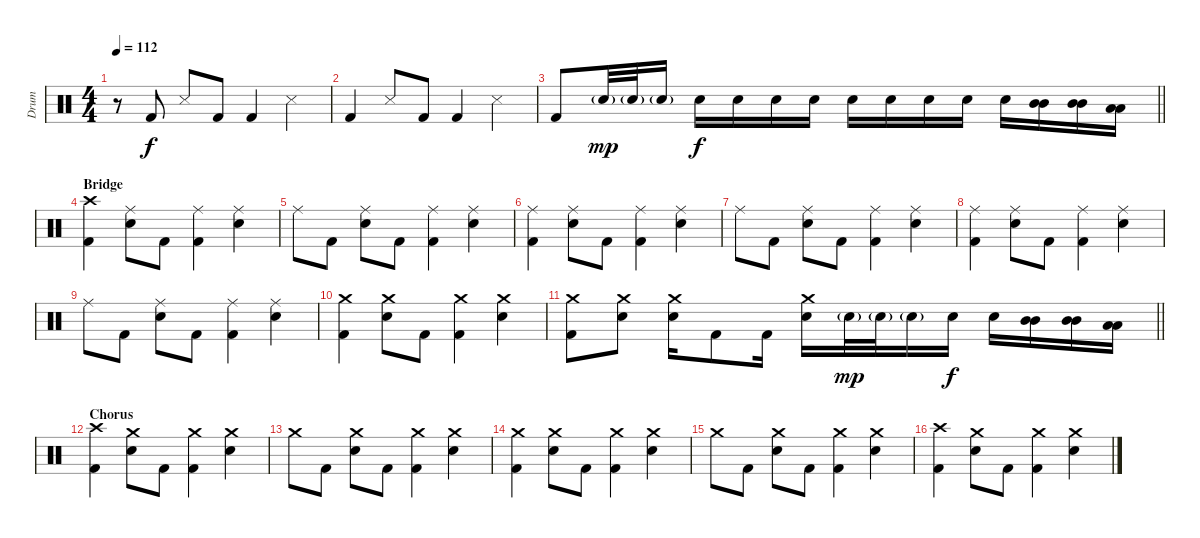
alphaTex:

\track ("Drum" "Drum") {instrument percussion}
\staff {score}
\articulation defaults
\ts (4 4)
\tempo 112
\clef neutral
\ks c
r.8{dy f} "Kick (hit) 2".8 "Snare (side stick) 3".8 "Kick (hit) 2".8 "Kick (hit) 2".4 "Snare (side stick) 3".4 |
"Kick (hit) 2".4 "Snare (side stick) 3".8 "Kick (hit) 2".8 "Kick (hit) 2".4 "Snare (side stick) 3".4 |
\barLineRight lightlight "Kick (hit) 2".8 "Electric Snare (hit)"{g}.32{dy mp} "Electric Snare (hit)"{g}.32 "Electric Snare (hit)"{g}.16 "Electric Snare (hit)".16{dy f} "Electric Snare (hit)".16 "Electric Snare (hit)".16 "Electric Snare (hit)".16 "Electric Snare (hit)".16 "Electric Snare (hit)".16 "Electric Snare (hit)".16 "Electric Snare (hit)".16 "Electric Snare (hit)".16
("Mid Tom (hit)" "Mid Tom (hit)").16 ("Mid Tom (hit)" "Mid Tom (hit)").16 ("Low Tom (hit)" "Low Tom (hit)").16 |
\section ("" "Bridge")
("Crash high (hit)" "Kick (hit) 2").4 ("Ride (middle)" "Electric Snare (hit)").8 "Kick (hit) 2".8 ("Ride (middle)" "Kick (hit) 2").4 ("Ride (middle)" "Electric Snare (hit)").4 |
"Ride (middle)".8 "Kick (hit) 2".8 ("Ride (middle)" "Electric Snare (hit)").8 "Kick (hit) 2".8 ("Ride (middle)" "Kick (hit) 2").4 ("Ride (middle)" "Electric Snare (hit)").4 |
("Ride (middle)" "Kick (hit) 2").4 ("Ride (middle)" "Electric Snare (hit)").8 "Kick (hit) 2".8 ("Ride (middle)" "Kick (hit) 2").4 ("Ride (middle)" "Electric Snare (hit)").4 |
"Ride (middle)".8 "Kick (hit) 2".8 ("Ride (middle)" "Electric Snare (hit)").8 "Kick (hit) 2".8 ("Ride (middle)" "Kick (hit) 2").4 ("Ride (middle)" "Electric Snare (hit)").4 |
("Ride (middle)" "Kick (hit) 2").4 ("Ride (middle)" "Electric Snare (hit)").8 "Kick (hit) 2".8 ("Ride (middle)" "Kick (hit) 2").4 ("Ride (middle)" "Electric Snare (hit)").4 |
"Ride (middle)".8 "Kick (hit) 2".8 ("Ride (middle)" "Electric Snare (hit)").8 "Kick (hit) 2".8 ("Ride (middle)" "Kick (hit) 2").4 ("Ride (middle)" "Electric Snare (hit)").4 |
("Crash medium (hit)" "Kick (hit) 2").4 ("Crash medium (hit)" "Electric Snare (hit)").8 "Kick (hit) 2".8 ("Crash medium (hit)" "Kick (hit) 2").4 ("Crash medium (hit)" "Electric Snare (hit)").4 |
\barLineRight lightlight
("Crash medium (hit)" "Kick (hit) 2").8 ("Crash medium (hit)" "Electric Snare (hit)").8 ("Crash medium (hit)" "Electric Snare (hit)").16 "Kick (hit) 2".8 "Kick (hit) 2".16 ("Crash medium (hit)" "Electric Snare (hit)").16 "Electric Snare (hit)"{g}.32{dy mp} "Electric Snare (hit)"{g}.32 "Electric Snare (hit)"{g}.16 "Electric Snare (hit)".16{dy f} "Electric Snare (hit)".16 ("Mid Tom (hit)" "Mid Tom (hit)").16 ("Mid Tom (hit)" "Mid Tom (hit)").16 ("Low Tom (hit)" "Low Tom (hit)").16 |
\section ("" "Chorus")
("Crash high (hit)" "Kick (hit) 2").4 ("Crash medium (hit)" "Electric Snare (hit)").8 "Kick (hit) 2".8 ("Crash medium (hit)" "Kick (hit) 2").4 ("Crash medium (hit)" "Electric Snare (hit)").4 |
"Crash medium (hit)".8 "Kick (hit) 2".8 ("Crash medium (hit)" "Electric Snare (hit)").8 "Kick (hit) 2".8 ("Crash medium (hit)" "Kick (hit) 2").4 ("Crash medium (hit)" "Electric Snare (hit)").4 |
("Crash medium (hit)" "Kick (hit) 2").4 ("Crash medium (hit)" "Electric Snare (hit)").8 "Kick (hit) 2".8 ("Crash medium (hit)" "Kick (hit) 2").4 ("Crash medium (hit)" "Electric Snare (hit)").4 |
"Crash medium (hit)".8 "Kick (hit) 2".8 ("Crash medium (hit)" "Electric Snare (hit)").8 "Kick (hit) 2".8 ("Crash medium (hit)" "Kick (hit) 2").4 ("Crash medium (hit)" "Electric Snare (hit)").4 |
("Crash high (hit)" "Kick (hit) 2").4 ("Crash medium (hit)" "Electric Snare (hit)").8 "Kick (hit) 2".8 ("Crash medium (hit)" "Kick (hit) 2").4 ("Crash medium (hit)" "Electric Snare (hit)").4
